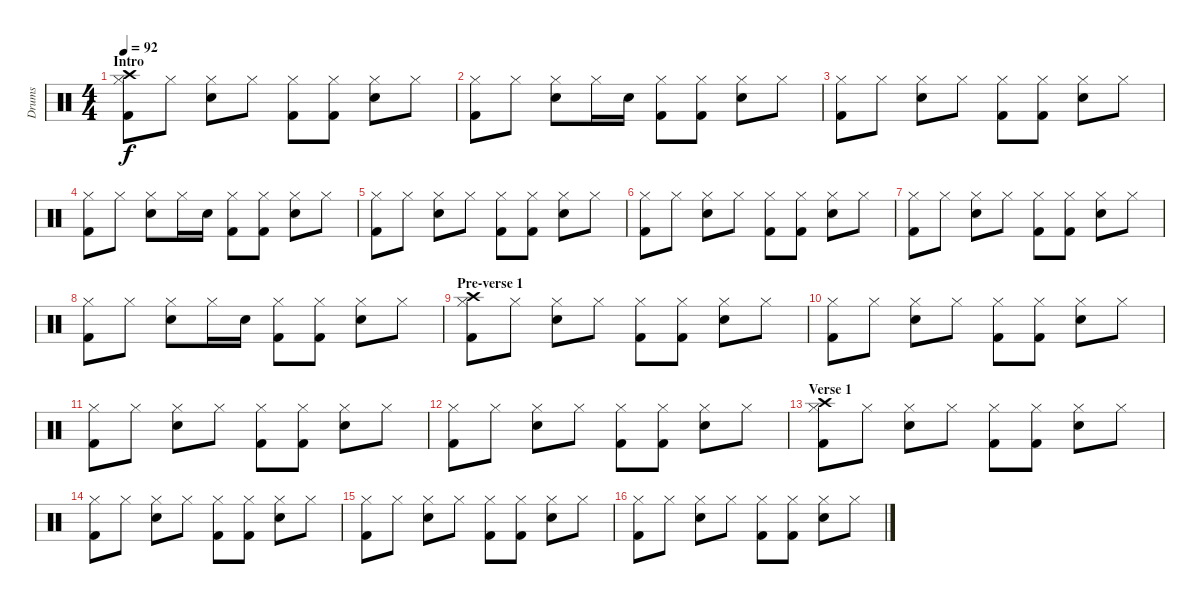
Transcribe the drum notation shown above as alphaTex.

\track ("Drums" "Drums") {instrument percussion}
\staff {score}
\articulation defaults
\ts (4 4)
\section ("" "Intro")
\tempo 92
\clef neutral
\ks c
("Kick (hit) 2" "Hi-Hat (closed)" "Crash high (hit)").8{dy f} "Hi-Hat (closed)".8 ("Electric Snare (hit)" "Hi-Hat (closed)").8 "Hi-Hat (closed)".8 ("Kick (hit) 2" "Hi-Hat (closed)").8 ("Kick (hit) 2" "Hi-Hat (closed)").8 ("Electric Snare (hit)" "Hi-Hat (closed)").8 "Hi-Hat (closed)".8 |
("Kick (hit) 2" "Hi-Hat (closed)").8 "Hi-Hat (closed)".8 ("Electric Snare (hit)" "Hi-Hat (closed)").8 "Hi-Hat (closed)".16 "Electric Snare (hit)".16 ("Kick (hit) 2" "Hi-Hat (closed)").8 ("Kick (hit) 2" "Hi-Hat (closed)").8 ("Electric Snare (hit)" "Hi-Hat (closed)").8 "Hi-Hat (closed)".8 |
("Kick (hit) 2" "Hi-Hat (closed)").8 "Hi-Hat (closed)".8 ("Electric Snare (hit)" "Hi-Hat (closed)").8 "Hi-Hat (closed)".8 ("Kick (hit) 2" "Hi-Hat (closed)").8 ("Kick (hit) 2" "Hi-Hat (closed)").8 ("Electric Snare (hit)" "Hi-Hat (closed)").8 "Hi-Hat (closed)".8 |
("Kick (hit) 2" "Hi-Hat (closed)").8 "Hi-Hat (closed)".8 ("Electric Snare (hit)" "Hi-Hat (closed)").8 "Hi-Hat (closed)".16 "Electric Snare (hit)".16 ("Kick (hit) 2" "Hi-Hat (closed)").8 ("Kick (hit) 2" "Hi-Hat (closed)").8 ("Electric Snare (hit)" "Hi-Hat (closed)").8 "Hi-Hat (closed)".8 |
("Kick (hit) 2" "Hi-Hat (closed)").8 "Hi-Hat (closed)".8 ("Electric Snare (hit)" "Hi-Hat (closed)").8 "Hi-Hat (closed)".8 ("Kick (hit) 2" "Hi-Hat (closed)").8 ("Kick (hit) 2" "Hi-Hat (closed)").8 ("Electric Snare (hit)" "Hi-Hat (closed)").8 "Hi-Hat (closed)".8 |
("Kick (hit) 2" "Hi-Hat (closed)").8 "Hi-Hat (closed)".8 ("Electric Snare (hit)" "Hi-Hat (closed)").8 "Hi-Hat (closed)".8 ("Kick (hit) 2" "Hi-Hat (closed)").8 ("Kick (hit) 2" "Hi-Hat (closed)").8 ("Electric Snare (hit)" "Hi-Hat (closed)").8 "Hi-Hat (closed)".8 |
("Kick (hit) 2" "Hi-Hat (closed)").8 "Hi-Hat (closed)".8 ("Electric Snare (hit)" "Hi-Hat (closed)").8 "Hi-Hat (closed)".8 ("Kick (hit) 2" "Hi-Hat (closed)").8 ("Kick (hit) 2" "Hi-Hat (closed)").8 ("Electric Snare (hit)" "Hi-Hat (closed)").8 "Hi-Hat (closed)".8 |
("Kick (hit) 2" "Hi-Hat (closed)").8 "Hi-Hat (closed)".8 ("Electric Snare (hit)" "Hi-Hat (closed)").8 "Hi-Hat (closed)".16 "Electric Snare (hit)".16 ("Kick (hit) 2" "Hi-Hat (closed)").8 ("Kick (hit) 2" "Hi-Hat (closed)").8 ("Electric Snare (hit)" "Hi-Hat (closed)").8 "Hi-Hat (closed)".8 |
\section ("" "Pre-verse 1")
("Kick (hit) 2" "Hi-Hat (closed)" "Crash high (hit)").8 "Hi-Hat (closed)".8 ("Electric Snare (hit)" "Hi-Hat (closed)").8 "Hi-Hat (closed)".8 ("Kick (hit) 2" "Hi-Hat (closed)").8 ("Kick (hit) 2" "Hi-Hat (closed)").8 ("Electric Snare (hit)" "Hi-Hat (closed)").8 "Hi-Hat (closed)".8 |
("Kick (hit) 2" "Hi-Hat (closed)").8 "Hi-Hat (closed)".8 ("Electric Snare (hit)" "Hi-Hat (closed)").8 "Hi-Hat (closed)".8 ("Kick (hit) 2" "Hi-Hat (closed)").8 ("Kick (hit) 2" "Hi-Hat (closed)").8 ("Electric Snare (hit)" "Hi-Hat (closed)").8 "Hi-Hat (closed)".8 |
("Kick (hit) 2" "Hi-Hat (closed)").8 "Hi-Hat (closed)".8 ("Electric Snare (hit)" "Hi-Hat (closed)").8 "Hi-Hat (closed)".8 ("Kick (hit) 2" "Hi-Hat (closed)").8 ("Kick (hit) 2" "Hi-Hat (closed)").8 ("Electric Snare (hit)" "Hi-Hat (closed)").8 "Hi-Hat (closed)".8 |
("Kick (hit) 2" "Hi-Hat (closed)").8 "Hi-Hat (closed)".8 ("Electric Snare (hit)" "Hi-Hat (closed)").8 "Hi-Hat (closed)".8 ("Kick (hit) 2" "Hi-Hat (closed)").8 ("Kick (hit) 2" "Hi-Hat (closed)").8 ("Electric Snare (hit)" "Hi-Hat (closed)").8 "Hi-Hat (closed)".8 |
\section ("" "Verse 1")
("Kick (hit) 2" "Hi-Hat (closed)" "Crash high (hit)").8 "Hi-Hat (closed)".8 ("Electric Snare (hit)" "Hi-Hat (closed)").8 "Hi-Hat (closed)".8 ("Kick (hit) 2" "Hi-Hat (closed)").8 ("Kick (hit) 2" "Hi-Hat (closed)").8 ("Electric Snare (hit)" "Hi-Hat (closed)").8 "Hi-Hat (closed)".8 |
("Kick (hit) 2" "Hi-Hat (closed)").8 "Hi-Hat (closed)".8 ("Electric Snare (hit)" "Hi-Hat (closed)").8 "Hi-Hat (closed)".8 ("Kick (hit) 2" "Hi-Hat (closed)").8 ("Kick (hit) 2" "Hi-Hat (closed)").8 ("Electric Snare (hit)" "Hi-Hat (closed)").8 "Hi-Hat (closed)".8 |
("Kick (hit) 2" "Hi-Hat (closed)").8 "Hi-Hat (closed)".8 ("Electric Snare (hit)" "Hi-Hat (closed)").8 "Hi-Hat (closed)".8 ("Kick (hit) 2" "Hi-Hat (closed)").8 ("Kick (hit) 2" "Hi-Hat (closed)").8 ("Electric Snare (hit)" "Hi-Hat (closed)").8 "Hi-Hat (closed)".8 |
("Kick (hit) 2" "Hi-Hat (closed)").8 "Hi-Hat (closed)".8 ("Electric Snare (hit)" "Hi-Hat (closed)").8 "Hi-Hat (closed)".8 ("Kick (hit) 2" "Hi-Hat (closed)").8 ("Kick (hit) 2" "Hi-Hat (closed)").8 ("Electric Snare (hit)" "Hi-Hat (closed)").8 "Hi-Hat (closed)".8
